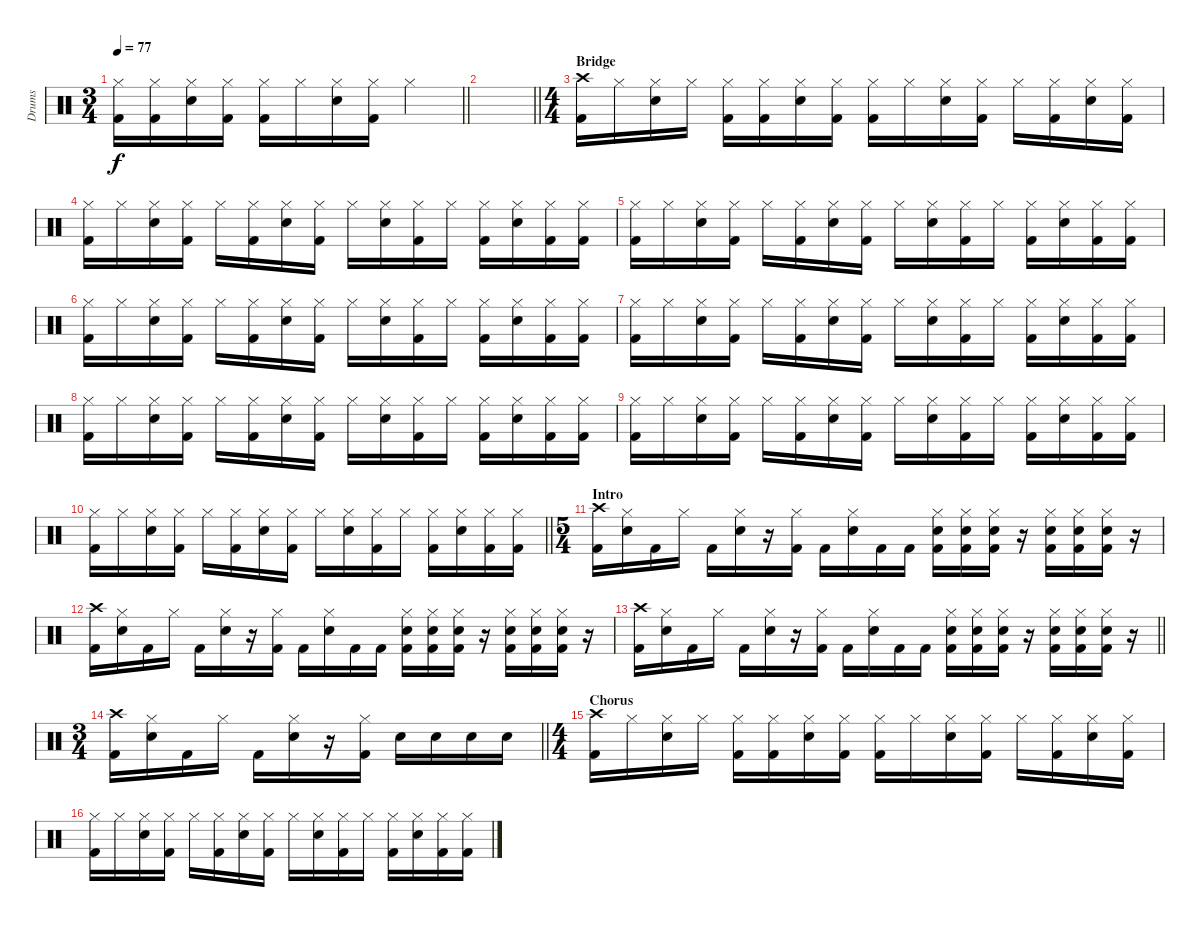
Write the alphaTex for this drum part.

\track ("Drums" "Drums") {instrument percussion}
\staff {score}
\articulation defaults
\ts (3 4)
\tempo 77
\clef neutral
\barLineRight lightlight
\ks c
("Hi-Hat (closed)" "Kick (hit) 2").16{dy f} ("Hi-Hat (closed)" "Kick (hit) 2").16 ("Hi-Hat (closed)" "Snare (hit) 2").16 ("Hi-Hat (closed)" "Kick (hit) 2").16 ("Hi-Hat (closed)" "Kick (hit) 2").16 "Hi-Hat (closed)".16 ("Hi-Hat (closed)" "Snare (hit) 2").16 ("Hi-Hat (closed)" "Kick (hit) 2").16 "Hi-Hat (closed)".4 |
\barLineRight lightlight
|
\ts (4 4)
\section ("" "Bridge")
("Crash high (hit)" "Kick (hit) 2").16 "Hi-Hat (closed)".16 ("Hi-Hat (closed)" "Snare (hit) 2").16 "Hi-Hat (closed)".16 ("Hi-Hat (closed)" "Kick (hit) 2").16 ("Hi-Hat (closed)" "Kick (hit) 2").16 ("Hi-Hat (closed)" "Snare (hit) 2").16 ("Hi-Hat (closed)" "Kick (hit) 2").16 ("Hi-Hat (closed)" "Kick (hit) 2").16 "Hi-Hat (closed)".16 ("Hi-Hat (closed)" "Snare (hit) 2").16 ("Hi-Hat (closed)" "Kick (hit) 2").16 "Hi-Hat (closed)".16 ("Hi-Hat (closed)" "Kick (hit) 2").16 ("Hi-Hat (closed)" "Snare (hit) 2").16 ("Hi-Hat (closed)" "Kick (hit) 2").16 |
("Hi-Hat (closed)" "Kick (hit) 2").16 "Hi-Hat (closed)".16 ("Hi-Hat (closed)" "Snare (hit) 2").16 ("Hi-Hat (closed)" "Kick (hit) 2").16 "Hi-Hat (closed)".16 ("Hi-Hat (closed)" "Kick (hit) 2").16 ("Hi-Hat (closed)" "Snare (hit) 2").16 ("Hi-Hat (closed)" "Kick (hit) 2").16 "Hi-Hat (closed)".16 ("Hi-Hat (closed)" "Snare (hit) 2").16 ("Hi-Hat (closed)" "Kick (hit) 2").16 "Hi-Hat (closed)".16 ("Hi-Hat (closed)" "Kick (hit) 2").16 ("Hi-Hat (closed)" "Snare (hit) 2").16 ("Hi-Hat (closed)" "Kick (hit) 2").16 ("Hi-Hat (closed)" "Kick (hit) 2").16 |
("Hi-Hat (closed)" "Kick (hit) 2").16 "Hi-Hat (closed)".16 ("Hi-Hat (closed)" "Snare (hit) 2").16 ("Hi-Hat (closed)" "Kick (hit) 2").16 "Hi-Hat (closed)".16 ("Hi-Hat (closed)" "Kick (hit) 2").16 ("Hi-Hat (closed)" "Snare (hit) 2").16 ("Hi-Hat (closed)" "Kick (hit) 2").16 "Hi-Hat (closed)".16 ("Hi-Hat (closed)" "Snare (hit) 2").16 ("Hi-Hat (closed)" "Kick (hit) 2").16 "Hi-Hat (closed)".16 ("Hi-Hat (closed)" "Kick (hit) 2").16 ("Hi-Hat (closed)" "Snare (hit) 2").16 ("Hi-Hat (closed)" "Kick (hit) 2").16 ("Hi-Hat (closed)" "Kick (hit) 2").16 |
("Hi-Hat (closed)" "Kick (hit) 2").16 "Hi-Hat (closed)".16 ("Hi-Hat (closed)" "Snare (hit) 2").16 ("Hi-Hat (closed)" "Kick (hit) 2").16 "Hi-Hat (closed)".16 ("Hi-Hat (closed)" "Kick (hit) 2").16 ("Hi-Hat (closed)" "Snare (hit) 2").16 ("Hi-Hat (closed)" "Kick (hit) 2").16 "Hi-Hat (closed)".16 ("Hi-Hat (closed)" "Snare (hit) 2").16 ("Hi-Hat (closed)" "Kick (hit) 2").16 "Hi-Hat (closed)".16 ("Hi-Hat (closed)" "Kick (hit) 2").16 ("Hi-Hat (closed)" "Snare (hit) 2").16 ("Hi-Hat (closed)" "Kick (hit) 2").16 ("Hi-Hat (closed)" "Kick (hit) 2").16 |
("Hi-Hat (closed)" "Kick (hit) 2").16 "Hi-Hat (closed)".16 ("Hi-Hat (closed)" "Snare (hit) 2").16 ("Hi-Hat (closed)" "Kick (hit) 2").16 "Hi-Hat (closed)".16 ("Hi-Hat (closed)" "Kick (hit) 2").16 ("Hi-Hat (closed)" "Snare (hit) 2").16 ("Hi-Hat (closed)" "Kick (hit) 2").16 "Hi-Hat (closed)".16 ("Hi-Hat (closed)" "Snare (hit) 2").16 ("Hi-Hat (closed)" "Kick (hit) 2").16 "Hi-Hat (closed)".16 ("Hi-Hat (closed)" "Kick (hit) 2").16 ("Hi-Hat (closed)" "Snare (hit) 2").16 ("Hi-Hat (closed)" "Kick (hit) 2").16 ("Hi-Hat (closed)" "Kick (hit) 2").16 |
("Hi-Hat (closed)" "Kick (hit) 2").16 "Hi-Hat (closed)".16 ("Hi-Hat (closed)" "Snare (hit) 2").16 ("Hi-Hat (closed)" "Kick (hit) 2").16 "Hi-Hat (closed)".16 ("Hi-Hat (closed)" "Kick (hit) 2").16 ("Hi-Hat (closed)" "Snare (hit) 2").16 ("Hi-Hat (closed)" "Kick (hit) 2").16 "Hi-Hat (closed)".16 ("Hi-Hat (closed)" "Snare (hit) 2").16 ("Hi-Hat (closed)" "Kick (hit) 2").16 "Hi-Hat (closed)".16 ("Hi-Hat (closed)" "Kick (hit) 2").16 ("Hi-Hat (closed)" "Snare (hit) 2").16 ("Hi-Hat (closed)" "Kick (hit) 2").16 ("Hi-Hat (closed)" "Kick (hit) 2").16 |
("Hi-Hat (closed)" "Kick (hit) 2").16 "Hi-Hat (closed)".16 ("Hi-Hat (closed)" "Snare (hit) 2").16 ("Hi-Hat (closed)" "Kick (hit) 2").16 "Hi-Hat (closed)".16 ("Hi-Hat (closed)" "Kick (hit) 2").16 ("Hi-Hat (closed)" "Snare (hit) 2").16 ("Hi-Hat (closed)" "Kick (hit) 2").16 "Hi-Hat (closed)".16 ("Hi-Hat (closed)" "Snare (hit) 2").16 ("Hi-Hat (closed)" "Kick (hit) 2").16 "Hi-Hat (closed)".16 ("Hi-Hat (closed)" "Kick (hit) 2").16 ("Hi-Hat (closed)" "Snare (hit) 2").16 ("Hi-Hat (closed)" "Kick (hit) 2").16 ("Hi-Hat (closed)" "Kick (hit) 2").16 |
\barLineRight lightlight
("Hi-Hat (closed)" "Kick (hit) 2").16 "Hi-Hat (closed)".16 ("Hi-Hat (closed)" "Snare (hit) 2").16 ("Hi-Hat (closed)" "Kick (hit) 2").16 "Hi-Hat (closed)".16 ("Hi-Hat (closed)" "Kick (hit) 2").16 ("Hi-Hat (closed)" "Snare (hit) 2").16 ("Hi-Hat (closed)" "Kick (hit) 2").16 "Hi-Hat (closed)".16 ("Hi-Hat (closed)" "Snare (hit) 2").16 ("Hi-Hat (closed)" "Kick (hit) 2").16 "Hi-Hat (closed)".16 ("Hi-Hat (closed)" "Kick (hit) 2").16 ("Hi-Hat (closed)" "Snare (hit) 2").16 ("Hi-Hat (closed)" "Kick (hit) 2").16 ("Hi-Hat (closed)" "Kick (hit) 2").16 |
\ts (5 4)
\section ("" "Intro")
("Crash high (hit)" "Kick (hit) 2").16 ("Hi-Hat (closed)" "Snare (hit) 2").16 "Kick (hit) 2".16 "Hi-Hat (closed)".16 "Kick (hit) 2".16 ("Hi-Hat (closed)" "Snare (hit) 2").16 r.16 ("Hi-Hat (closed)" "Kick (hit) 2").16 "Kick (hit) 2".16 ("Hi-Hat (closed)" "Snare (hit) 2").16 "Kick (hit) 2".16 "Kick (hit) 2".16 ("Hi-Hat (closed)" "Snare (hit) 2" "Kick (hit) 2").16 ("Hi-Hat (closed)" "Snare (hit) 2" "Kick (hit) 2").16 ("Hi-Hat (closed)" "Snare (hit) 2" "Kick (hit) 2").16 r.16 ("Hi-Hat (closed)" "Snare (hit) 2" "Kick (hit) 2").16 ("Hi-Hat (closed)" "Snare (hit) 2" "Kick (hit) 2").16 ("Hi-Hat (closed)" "Snare (hit) 2" "Kick (hit) 2").16 r.16 |
("Crash high (hit)" "Kick (hit) 2").16 ("Hi-Hat (closed)" "Snare (hit) 2").16 "Kick (hit) 2".16 "Hi-Hat (closed)".16 "Kick (hit) 2".16 ("Hi-Hat (closed)" "Snare (hit) 2").16 r.16 ("Hi-Hat (closed)" "Kick (hit) 2").16 "Kick (hit) 2".16 ("Hi-Hat (closed)" "Snare (hit) 2").16 "Kick (hit) 2".16 "Kick (hit) 2".16 ("Hi-Hat (closed)" "Snare (hit) 2" "Kick (hit) 2").16 ("Hi-Hat (closed)" "Snare (hit) 2" "Kick (hit) 2").16 ("Hi-Hat (closed)" "Snare (hit) 2" "Kick (hit) 2").16 r.16 ("Hi-Hat (closed)" "Snare (hit) 2" "Kick (hit) 2").16 ("Hi-Hat (closed)" "Snare (hit) 2" "Kick (hit) 2").16 ("Hi-Hat (closed)" "Snare (hit) 2" "Kick (hit) 2").16 r.16 |
\barLineRight lightlight
("Crash high (hit)" "Kick (hit) 2").16 ("Hi-Hat (closed)" "Snare (hit) 2").16 "Kick (hit) 2".16 "Hi-Hat (closed)".16 "Kick (hit) 2".16 ("Hi-Hat (closed)" "Snare (hit) 2").16 r.16 ("Hi-Hat (closed)" "Kick (hit) 2").16 "Kick (hit) 2".16 ("Hi-Hat (closed)" "Snare (hit) 2").16 "Kick (hit) 2".16 "Kick (hit) 2".16 ("Hi-Hat (closed)" "Snare (hit) 2" "Kick (hit) 2").16 ("Hi-Hat (closed)" "Snare (hit) 2" "Kick (hit) 2").16 ("Hi-Hat (closed)" "Snare (hit) 2" "Kick (hit) 2").16 r.16 ("Hi-Hat (closed)" "Snare (hit) 2" "Kick (hit) 2").16 ("Hi-Hat (closed)" "Snare (hit) 2" "Kick (hit) 2").16 ("Hi-Hat (closed)" "Snare (hit) 2" "Kick (hit) 2").16 r.16 |
\ts (3 4)
\barLineRight lightlight
("Crash high (hit)" "Kick (hit) 2").16 ("Hi-Hat (closed)" "Snare (hit) 2").16 "Kick (hit) 2".16 "Hi-Hat (closed)".16 "Kick (hit) 2".16 ("Hi-Hat (closed)" "Snare (hit) 2").16 r.16 ("Hi-Hat (closed)" "Kick (hit) 2").16 "Snare (hit) 2".16 "Snare (hit) 2".16 "Snare (hit) 2".16 "Snare (hit) 2".16 |
\ts (4 4)
\section ("" "Chorus")
("Crash high (hit)" "Kick (hit) 2").16 "Hi-Hat (closed)".16 ("Hi-Hat (closed)" "Snare (hit) 2").16 "Hi-Hat (closed)".16 ("Hi-Hat (closed)" "Kick (hit) 2").16 ("Hi-Hat (closed)" "Kick (hit) 2").16 ("Hi-Hat (closed)" "Snare (hit) 2").16 ("Hi-Hat (closed)" "Kick (hit) 2").16 ("Hi-Hat (closed)" "Kick (hit) 2").16 "Hi-Hat (closed)".16 ("Hi-Hat (closed)" "Snare (hit) 2").16 ("Hi-Hat (closed)" "Kick (hit) 2").16 "Hi-Hat (closed)".16 ("Hi-Hat (closed)" "Kick (hit) 2").16 ("Hi-Hat (closed)" "Snare (hit) 2").16 ("Hi-Hat (closed)" "Kick (hit) 2").16 |
("Hi-Hat (closed)" "Kick (hit) 2").16 "Hi-Hat (closed)".16 ("Hi-Hat (closed)" "Snare (hit) 2").16 ("Hi-Hat (closed)" "Kick (hit) 2").16 "Hi-Hat (closed)".16 ("Hi-Hat (closed)" "Kick (hit) 2").16 ("Hi-Hat (closed)" "Snare (hit) 2").16 ("Hi-Hat (closed)" "Kick (hit) 2").16 "Hi-Hat (closed)".16 ("Hi-Hat (closed)" "Snare (hit) 2").16 ("Hi-Hat (closed)" "Kick (hit) 2").16 "Hi-Hat (closed)".16 ("Hi-Hat (closed)" "Kick (hit) 2").16 ("Hi-Hat (closed)" "Snare (hit) 2").16 ("Hi-Hat (closed)" "Kick (hit) 2").16 ("Hi-Hat (closed)" "Kick (hit) 2").16
